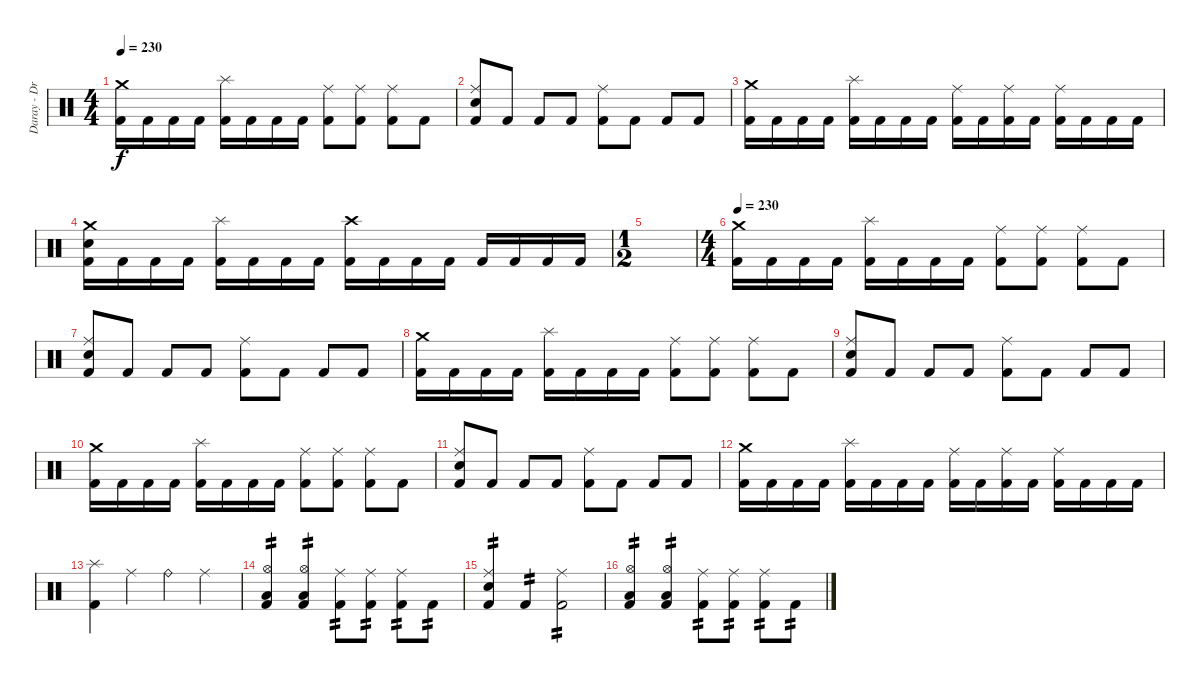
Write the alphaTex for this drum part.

\track ("Daray - Drums" "Daray - Dr") {instrument percussion}
\staff {score}
\articulation defaults
\ts (4 4)
\tempo 230
\clef neutral
\ks c
("Crash medium (hit)" "Kick (hit) 2").16{dy f} "Kick (hit) 2".16 "Kick (hit) 2".16 "Kick (hit) 2".16 ("Splash (hit)" "Kick (hit) 2").16 "Kick (hit) 2".16 "Kick (hit) 2".16 "Kick (hit) 2".16 ("Ride (middle)" "Kick (hit) 2").8 ("Ride (middle)" "Kick (hit) 2").8 ("Ride (middle)" "Kick (hit) 2").8 "Kick (hit) 2".8 |
("Ride (middle)" "Electric Snare (hit)" "Kick (hit) 2").8 "Kick (hit) 2".8 "Kick (hit) 2".8 "Kick (hit) 2".8 ("Ride (middle)" "Kick (hit) 2").8 "Kick (hit) 2".8 "Kick (hit) 2".8 "Kick (hit) 2".8 |
("Crash medium (hit)" "Kick (hit) 2").16 "Kick (hit) 2".16 "Kick (hit) 2".16 "Kick (hit) 2".16 ("Splash (hit)" "Kick (hit) 2").16 "Kick (hit) 2".16 "Kick (hit) 2".16 "Kick (hit) 2".16 ("Ride (middle)" "Kick (hit) 2").16 "Kick (hit) 2".16 ("Ride (middle)" "Kick (hit) 2").16 "Kick (hit) 2".16 ("Ride (middle)" "Kick (hit) 2").16 "Kick (hit) 2".16 "Kick (hit) 2".16 "Kick (hit) 2".16 |
("Crash medium (hit)" "Electric Snare (hit)" "Kick (hit) 2").16 "Kick (hit) 2".16 "Kick (hit) 2".16 "Kick (hit) 2".16 ("Splash (hit)" "Kick (hit) 2").16 "Kick (hit) 2".16 "Kick (hit) 2".16 "Kick (hit) 2".16 ("Crash high (hit)" "Kick (hit) 2").16 "Kick (hit) 2".16 "Kick (hit) 2".16 "Kick (hit) 2".16 "Kick (hit) 2".16 "Kick (hit) 2".16 "Kick (hit) 2".16 "Kick (hit) 2".16 |
\ts (1 2)
|
\ts (4 4)
\tempo 230
("Crash medium (hit)" "Kick (hit) 2").16 "Kick (hit) 2".16 "Kick (hit) 2".16 "Kick (hit) 2".16 ("Splash (hit)" "Kick (hit) 2").16 "Kick (hit) 2".16 "Kick (hit) 2".16 "Kick (hit) 2".16 ("Ride (middle)" "Kick (hit) 2").8 ("Ride (middle)" "Kick (hit) 2").8 ("Ride (middle)" "Kick (hit) 2").8 "Kick (hit) 2".8 |
("Ride (middle)" "Electric Snare (hit)" "Kick (hit) 2").8 "Kick (hit) 2".8 "Kick (hit) 2".8 "Kick (hit) 2".8 ("Ride (middle)" "Kick (hit) 2").8 "Kick (hit) 2".8 "Kick (hit) 2".8 "Kick (hit) 2".8 |
("Crash medium (hit)" "Kick (hit) 2").16 "Kick (hit) 2".16 "Kick (hit) 2".16 "Kick (hit) 2".16 ("Splash (hit)" "Kick (hit) 2").16 "Kick (hit) 2".16 "Kick (hit) 2".16 "Kick (hit) 2".16 ("Ride (middle)" "Kick (hit) 2").8 ("Ride (middle)" "Kick (hit) 2").8 ("Ride (middle)" "Kick (hit) 2").8 "Kick (hit) 2".8 |
("Ride (middle)" "Electric Snare (hit)" "Kick (hit) 2").8 "Kick (hit) 2".8 "Kick (hit) 2".8 "Kick (hit) 2".8 ("Ride (middle)" "Kick (hit) 2").8 "Kick (hit) 2".8 "Kick (hit) 2".8 "Kick (hit) 2".8 |
("Crash medium (hit)" "Kick (hit) 2").16 "Kick (hit) 2".16 "Kick (hit) 2".16 "Kick (hit) 2".16 ("Splash (hit)" "Kick (hit) 2").16 "Kick (hit) 2".16 "Kick (hit) 2".16 "Kick (hit) 2".16 ("Ride (middle)" "Kick (hit) 2").8 ("Ride (middle)" "Kick (hit) 2").8 ("Ride (middle)" "Kick (hit) 2").8 "Kick (hit) 2".8 |
("Ride (middle)" "Electric Snare (hit)" "Kick (hit) 2").8 "Kick (hit) 2".8 "Kick (hit) 2".8 "Kick (hit) 2".8 ("Ride (middle)" "Kick (hit) 2").8 "Kick (hit) 2".8 "Kick (hit) 2".8 "Kick (hit) 2".8 |
("Crash medium (hit)" "Kick (hit) 2").16 "Kick (hit) 2".16 "Kick (hit) 2".16 "Kick (hit) 2".16 ("Splash (hit)" "Kick (hit) 2").16 "Kick (hit) 2".16 "Kick (hit) 2".16 "Kick (hit) 2".16 ("Ride (middle)" "Kick (hit) 2").16 "Kick (hit) 2".16 ("Ride (middle)" "Kick (hit) 2").16 "Kick (hit) 2".16 ("Ride (middle)" "Kick (hit) 2").16 "Kick (hit) 2".16 "Kick (hit) 2".16 "Kick (hit) 2".16 |
("Splash (hit)" "Kick (hit) 2").4 "Ride (middle)".4 "Ride (bell)".4 "Ride (middle)".4 |
("Hi-Hat (open)" "Low Floor Tom (hit)" "Kick (hit) 2").4{tp 2} ("Hi-Hat (open)" "Low Floor Tom (hit)" "Kick (hit) 2").4{tp 2} ("Ride (middle)" "Kick (hit) 2").8{tp 2} ("Ride (middle)" "Kick (hit) 2").8{tp 2} ("Ride (middle)" "Kick (hit) 2").8{tp 2} "Kick (hit) 2".8{tp 2} |
("Ride (middle)" "Electric Snare (hit)" "Kick (hit) 2").4{tp 2} "Kick (hit) 2".4{tp 2} ("Ride (middle)" "Kick (hit) 2").2{tp 2} |
("Hi-Hat (open)" "Low Floor Tom (hit)" "Kick (hit) 2").4{tp 2} ("Hi-Hat (open)" "Low Floor Tom (hit)" "Kick (hit) 2").4{tp 2} ("Ride (middle)" "Kick (hit) 2").8{tp 2} ("Ride (middle)" "Kick (hit) 2").8{tp 2} ("Ride (middle)" "Kick (hit) 2").8{tp 2} "Kick (hit) 2".8{tp 2}
